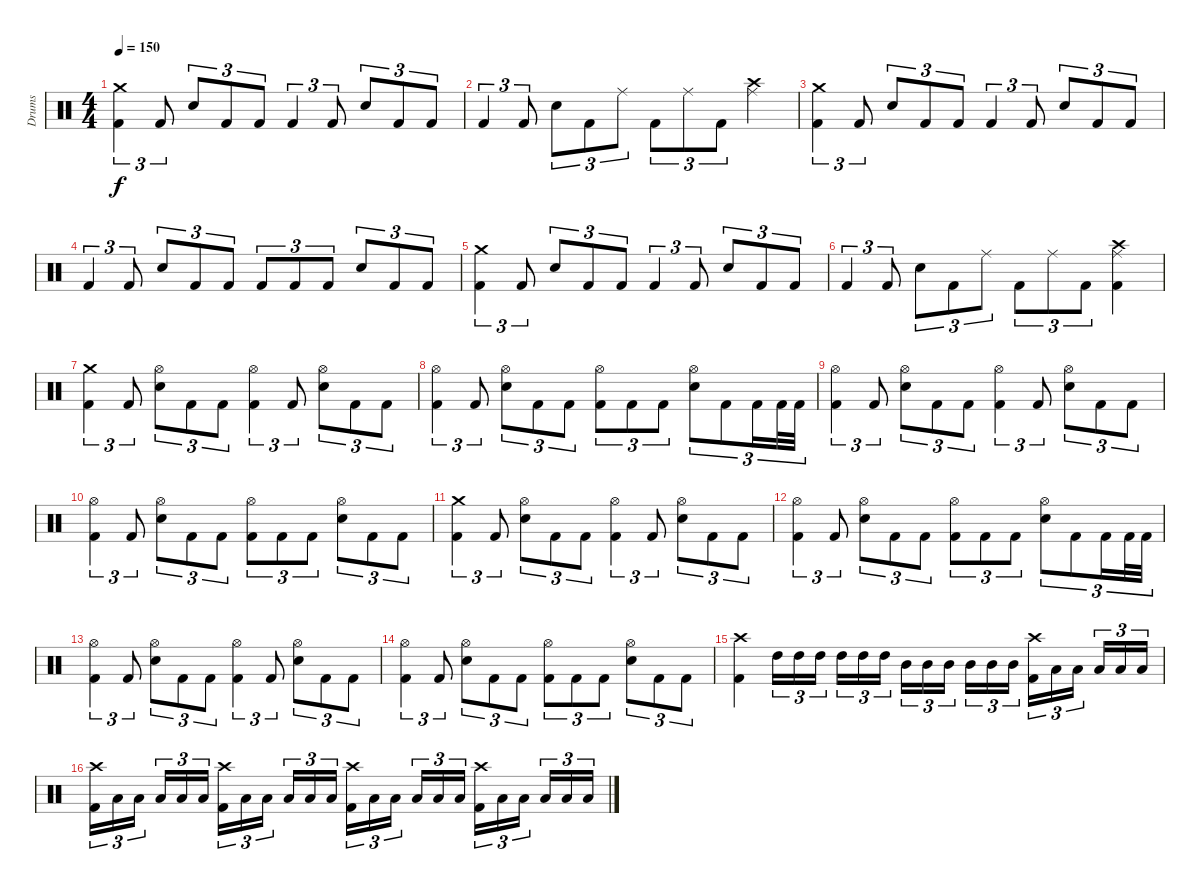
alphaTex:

\track ("Drums" "Drums") {instrument percussion}
\staff {score}
\articulation defaults
\ts (4 4)
\tempo 150
\clef neutral
\ks c
("Crash medium (hit)" "Kick (hit) 2").4{tu (3 2) dy f} "Kick (hit) 2".8{tu (3 2)} "Electric Snare (hit)".8{tu (3 2)} "Kick (hit) 2".8{tu (3 2)} "Kick (hit) 2".8{tu (3 2)} "Kick (hit) 2".4{tu (3 2)} "Kick (hit) 2".8{tu (3 2)} "Electric Snare (hit)".8{tu (3 2)} "Kick (hit) 2".8{tu (3 2)} "Kick (hit) 2".8{tu (3 2)} |
"Kick (hit) 2".4{tu (3 2)} "Kick (hit) 2".8{tu (3 2)} "Electric Snare (hit)".8{tu (3 2)} "Kick (hit) 2".8{tu (3 2)} "Ride (middle)".8{tu (3 2)} "Kick (hit) 2".8{tu (3 2)} "Ride (middle)".8{tu (3 2)} "Kick (hit) 2".8{tu (3 2)} ("Crash high (hit)" "Ride (middle)").4 |
("Crash medium (hit)" "Kick (hit) 2").4{tu (3 2)} "Kick (hit) 2".8{tu (3 2)} "Electric Snare (hit)".8{tu (3 2)} "Kick (hit) 2".8{tu (3 2)} "Kick (hit) 2".8{tu (3 2)} "Kick (hit) 2".4{tu (3 2)} "Kick (hit) 2".8{tu (3 2)} "Electric Snare (hit)".8{tu (3 2)} "Kick (hit) 2".8{tu (3 2)} "Kick (hit) 2".8{tu (3 2)} |
"Kick (hit) 2".4{tu (3 2)} "Kick (hit) 2".8{tu (3 2)} "Electric Snare (hit)".8{tu (3 2)} "Kick (hit) 2".8{tu (3 2)} "Kick (hit) 2".8{tu (3 2)} "Kick (hit) 2".8{tu (3 2)} "Kick (hit) 2".8{tu (3 2)} "Kick (hit) 2".8{tu (3 2)} "Electric Snare (hit)".8{tu (3 2)} "Kick (hit) 2".8{tu (3 2)} "Kick (hit) 2".8{tu (3 2)} |
("Crash medium (hit)" "Kick (hit) 2").4{tu (3 2)} "Kick (hit) 2".8{tu (3 2)} "Electric Snare (hit)".8{tu (3 2)} "Kick (hit) 2".8{tu (3 2)} "Kick (hit) 2".8{tu (3 2)} "Kick (hit) 2".4{tu (3 2)} "Kick (hit) 2".8{tu (3 2)} "Electric Snare (hit)".8{tu (3 2)} "Kick (hit) 2".8{tu (3 2)} "Kick (hit) 2".8{tu (3 2)} |
"Kick (hit) 2".4{tu (3 2)} "Kick (hit) 2".8{tu (3 2)} "Electric Snare (hit)".8{tu (3 2)} "Kick (hit) 2".8{tu (3 2)} "Ride (middle)".8{tu (3 2)} "Kick (hit) 2".8{tu (3 2)} "Ride (middle)".8{tu (3 2)} "Kick (hit) 2".8{tu (3 2)} ("Crash high (hit)" "Ride (middle)" "Kick (hit) 2").4 |
("Crash medium (hit)" "Kick (hit) 2").4{tu (3 2)} "Kick (hit) 2".8{tu (3 2)} ("Hi-Hat (open)" "Electric Snare (hit)").8{tu (3 2)} "Kick (hit) 2".8{tu (3 2)} "Kick (hit) 2".8{tu (3 2)} ("Hi-Hat (open)" "Kick (hit) 2").4{tu (3 2)} "Kick (hit) 2".8{tu (3 2)} ("Hi-Hat (open)" "Electric Snare (hit)").8{tu (3 2)} "Kick (hit) 2".8{tu (3 2)} "Kick (hit) 2".8{tu (3 2)} |
("Hi-Hat (open)" "Kick (hit) 2").4{tu (3 2)} "Kick (hit) 2".8{tu (3 2)} ("Hi-Hat (open)" "Electric Snare (hit)").8{tu (3 2)} "Kick (hit) 2".8{tu (3 2)} "Kick (hit) 2".8{tu (3 2)} ("Hi-Hat (open)" "Kick (hit) 2").8{tu (3 2)} "Kick (hit) 2".8{tu (3 2)} "Kick (hit) 2".8{tu (3 2)} ("Hi-Hat (open)" "Electric Snare (hit)").8{tu (3 2)} "Kick (hit) 2".8{tu (3 2)} "Kick (hit) 2".16{tu (3 2)} "Kick (hit) 2".32{tu (3 2)} "Kick (hit) 2".32{tu (3 2)} |
("Hi-Hat (open)" "Kick (hit) 2").4{tu (3 2)} "Kick (hit) 2".8{tu (3 2)} ("Hi-Hat (open)" "Electric Snare (hit)").8{tu (3 2)} "Kick (hit) 2".8{tu (3 2)} "Kick (hit) 2".8{tu (3 2)} ("Hi-Hat (open)" "Kick (hit) 2").4{tu (3 2)} "Kick (hit) 2".8{tu (3 2)} ("Hi-Hat (open)" "Electric Snare (hit)").8{tu (3 2)} "Kick (hit) 2".8{tu (3 2)} "Kick (hit) 2".8{tu (3 2)} |
("Hi-Hat (open)" "Kick (hit) 2").4{tu (3 2)} "Kick (hit) 2".8{tu (3 2)} ("Hi-Hat (open)" "Electric Snare (hit)").8{tu (3 2)} "Kick (hit) 2".8{tu (3 2)} "Kick (hit) 2".8{tu (3 2)} ("Hi-Hat (open)" "Kick (hit) 2").8{tu (3 2)} "Kick (hit) 2".8{tu (3 2)} "Kick (hit) 2".8{tu (3 2)} ("Hi-Hat (open)" "Electric Snare (hit)").8{tu (3 2)} "Kick (hit) 2".8{tu (3 2)} "Kick (hit) 2".8{tu (3 2)} |
("Crash medium (hit)" "Kick (hit) 2").4{tu (3 2)} "Kick (hit) 2".8{tu (3 2)} ("Hi-Hat (open)" "Electric Snare (hit)").8{tu (3 2)} "Kick (hit) 2".8{tu (3 2)} "Kick (hit) 2".8{tu (3 2)} ("Hi-Hat (open)" "Kick (hit) 2").4{tu (3 2)} "Kick (hit) 2".8{tu (3 2)} ("Hi-Hat (open)" "Electric Snare (hit)").8{tu (3 2)} "Kick (hit) 2".8{tu (3 2)} "Kick (hit) 2".8{tu (3 2)} |
("Hi-Hat (open)" "Kick (hit) 2").4{tu (3 2)} "Kick (hit) 2".8{tu (3 2)} ("Hi-Hat (open)" "Electric Snare (hit)").8{tu (3 2)} "Kick (hit) 2".8{tu (3 2)} "Kick (hit) 2".8{tu (3 2)} ("Hi-Hat (open)" "Kick (hit) 2").8{tu (3 2)} "Kick (hit) 2".8{tu (3 2)} "Kick (hit) 2".8{tu (3 2)} ("Hi-Hat (open)" "Electric Snare (hit)").8{tu (3 2)} "Kick (hit) 2".8{tu (3 2)} "Kick (hit) 2".16{tu (3 2)} "Kick (hit) 2".32{tu (3 2)} "Kick (hit) 2".32{tu (3 2)} |
("Hi-Hat (open)" "Kick (hit) 2").4{tu (3 2)} "Kick (hit) 2".8{tu (3 2)} ("Hi-Hat (open)" "Electric Snare (hit)").8{tu (3 2)} "Kick (hit) 2".8{tu (3 2)} "Kick (hit) 2".8{tu (3 2)} ("Hi-Hat (open)" "Kick (hit) 2").4{tu (3 2)} "Kick (hit) 2".8{tu (3 2)} ("Hi-Hat (open)" "Electric Snare (hit)").8{tu (3 2)} "Kick (hit) 2".8{tu (3 2)} "Kick (hit) 2".8{tu (3 2)} |
("Hi-Hat (open)" "Kick (hit) 2").4{tu (3 2)} "Kick (hit) 2".8{tu (3 2)} ("Hi-Hat (open)" "Electric Snare (hit)").8{tu (3 2)} "Kick (hit) 2".8{tu (3 2)} "Kick (hit) 2".8{tu (3 2)} ("Hi-Hat (open)" "Kick (hit) 2").8{tu (3 2)} "Kick (hit) 2".8{tu (3 2)} "Kick (hit) 2".8{tu (3 2)} ("Hi-Hat (open)" "Electric Snare (hit)").8{tu (3 2)} "Kick (hit) 2".8{tu (3 2)} "Kick (hit) 2".8{tu (3 2)} |
("Crash high (hit)" "Kick (hit) 2").4 "High Tom (hit)".16{tu (3 2)} "High Tom (hit)".16{tu (3 2)} "High Tom (hit)".16{tu (3 2) beam splitsecondary} "High Tom (hit)".16{tu (3 2)} "High Tom (hit)".16{tu (3 2)} "High Tom (hit)".16{tu (3 2)} "Mid Tom (hit)".16{tu (3 2)} "Mid Tom (hit)".16{tu (3 2)} "Mid Tom (hit)".16{tu (3 2) beam splitsecondary} "Mid Tom (hit)".16{tu (3 2)} "Mid Tom (hit)".16{tu (3 2)} "Mid Tom (hit)".16{tu (3 2)} ("Crash high (hit)" "Kick (hit) 2").16{tu (3 2)} "Low Floor Tom (hit)".16{tu (3 2)} "Low Floor Tom (hit)".16{tu (3 2) beam splitsecondary} "Low Floor Tom (hit)".16{tu (3 2)} "Low Floor Tom (hit)".16{tu (3 2)} "Low Floor Tom (hit)".16{tu (3 2)} |
("Crash high (hit)" "Kick (hit) 2").16{tu (3 2)} "Low Floor Tom (hit)".16{tu (3 2)} "Low Floor Tom (hit)".16{tu (3 2) beam splitsecondary} "Low Floor Tom (hit)".16{tu (3 2)} "Low Floor Tom (hit)".16{tu (3 2)} "Low Floor Tom (hit)".16{tu (3 2)} ("Crash high (hit)" "Kick (hit) 2").16{tu (3 2)} "Low Floor Tom (hit)".16{tu (3 2)} "Low Floor Tom (hit)".16{tu (3 2) beam splitsecondary} "Low Floor Tom (hit)".16{tu (3 2)} "Low Floor Tom (hit)".16{tu (3 2)} "Low Floor Tom (hit)".16{tu (3 2)} ("Crash high (hit)" "Kick (hit) 2").16{tu (3 2)} "Low Floor Tom (hit)".16{tu (3 2)} "Low Floor Tom (hit)".16{tu (3 2) beam splitsecondary} "Low Floor Tom (hit)".16{tu (3 2)} "Low Floor Tom (hit)".16{tu (3 2)} "Low Floor Tom (hit)".16{tu (3 2)} ("Crash high (hit)" "Kick (hit) 2").16{tu (3 2)} "Low Floor Tom (hit)".16{tu (3 2)} "Low Floor Tom (hit)".16{tu (3 2) beam splitsecondary} "Low Floor Tom (hit)".16{tu (3 2)} "Low Floor Tom (hit)".16{tu (3 2)} "Low Floor Tom (hit)".16{tu (3 2)}
